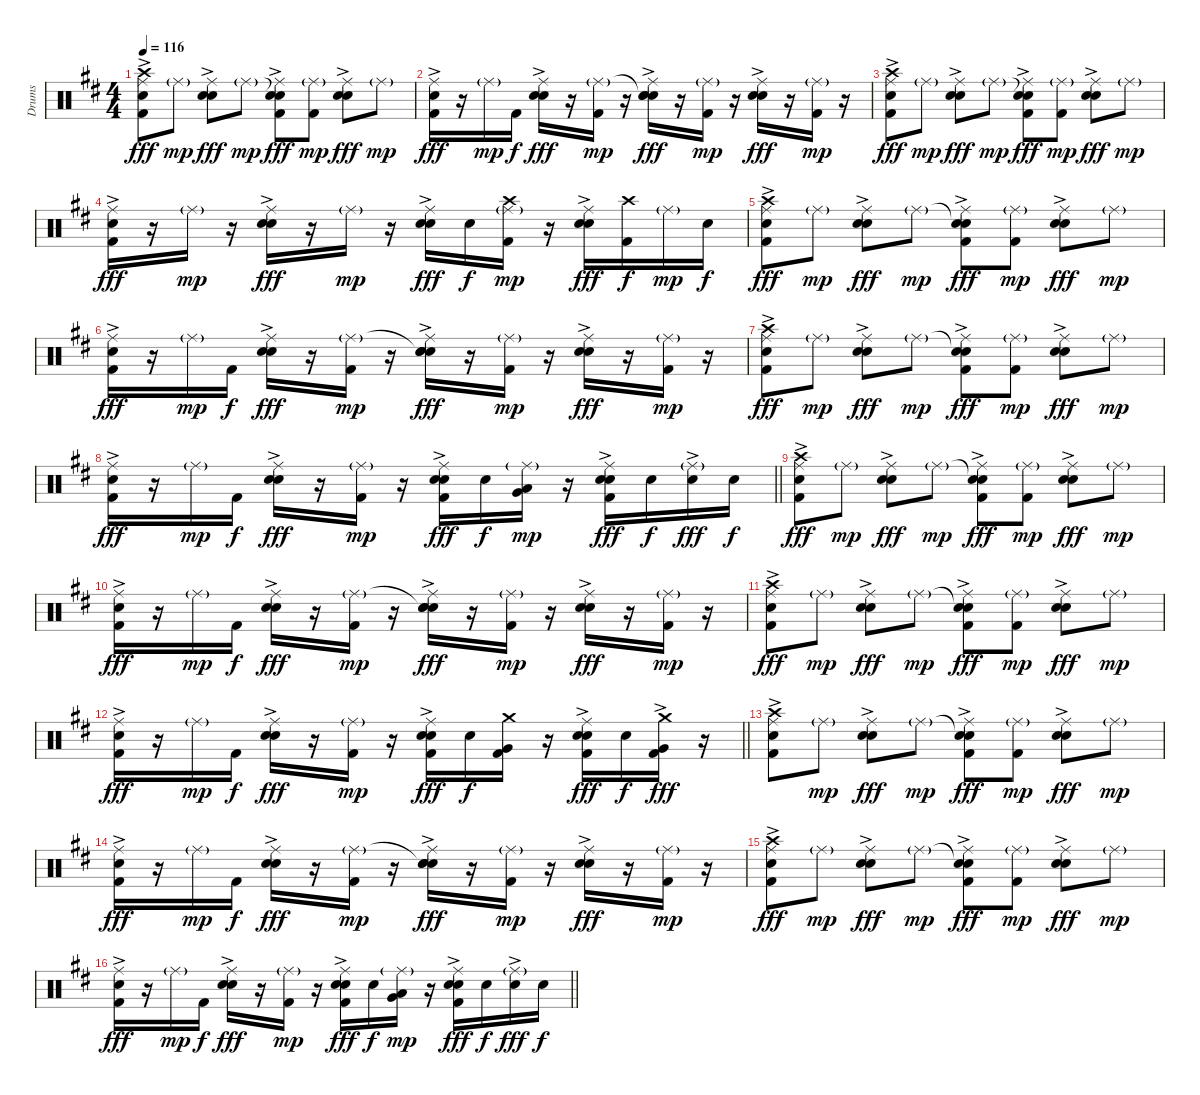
\track ("Drums" "Drums") {instrument percussion}
\staff {score}
\articulation defaults
\ts (4 4)
\tempo 116
\clef neutral
\ks d
("Crash high (hit)" "Ride (middle)" "Hand Clap (hit)"{ac} "Kick (hit) 2").8{dy fff} "Ride (middle)"{g}.8{dy mp} ("Ride (middle)" "Hand Clap (hit)"{ac} "Snare (hit) 2").8{dy fff} "Ride (middle)"{g}.8{dy mp} ("Snare (hit)"{t} "Ride (middle)" "Hand Clap (hit)"{ac} "Kick (hit) 2").8{dy fff} ("Ride (middle)"{g} "Kick (hit) 2").8{dy mp} ("Ride (middle)" "Hand Clap (hit)"{ac} "Snare (hit) 2").8{dy fff} "Ride (middle)"{g}.8{dy mp} |
("Ride (middle)" "Hand Clap (hit)"{ac} "Kick (hit) 2").16{dy fff} r.16 "Ride (middle)"{g}.16{dy mp} "Kick (hit) 2".16{dy f} ("Ride (middle)" "Hand Clap (hit)"{ac} "Snare (hit) 2").16{dy fff} r.16 ("Ride (middle)"{g} "Kick (hit) 2").16{dy mp} r.16 ("Snare (hit)"{t} "Ride (middle)" "Hand Clap (hit)"{ac} "Snare (hit) 2").16{dy fff} r.16 ("Ride (middle)"{g} "Kick (hit) 2").16{dy mp} r.16 ("Ride (middle)" "Hand Clap (hit)"{ac} "Snare (hit) 2").16{dy fff} r.16 ("Ride (middle)"{g} "Kick (hit) 2").16{dy mp} r.16 |
("Crash high (hit)" "Ride (middle)" "Hand Clap (hit)"{ac} "Kick (hit) 2").8{dy fff} "Ride (middle)"{g}.8{dy mp} ("Ride (middle)" "Hand Clap (hit)"{ac} "Snare (hit) 2").8{dy fff} "Ride (middle)"{g}.8{dy mp} ("Snare (hit)"{t} "Ride (middle)" "Hand Clap (hit)"{ac} "Kick (hit) 2").8{dy fff} ("Ride (middle)"{g} "Kick (hit) 2").8{dy mp} ("Ride (middle)" "Hand Clap (hit)"{ac} "Snare (hit) 2").8{dy fff} "Ride (middle)"{g}.8{dy mp} |
("Ride (middle)" "Hand Clap (hit)"{ac} "Kick (hit) 2").16{dy fff} r.16 "Ride (middle)"{g}.16{dy mp} r.16 ("Ride (middle)" "Hand Clap (hit)"{ac} "Snare (hit) 2").16{dy fff} r.16 "Ride (middle)"{g}.16{dy mp} r.16 ("Ride (middle)" "Hand Clap (hit)"{ac} "Snare (hit) 2").16{dy fff} "Snare (hit) 2".16{dy f} ("Crash high (hit)" "Ride (middle)"{g} "Kick (hit) 2").16{dy mp} r.16 ("Ride (middle)" "Hand Clap (hit)"{ac} "Snare (hit) 2").16{dy fff} ("Crash high (hit)" "Kick (hit) 2").16{dy f} "Ride (middle)"{g}.16{dy mp} "Snare (hit) 2".16{dy f} |
("Crash high (hit)" "Ride (middle)" "Hand Clap (hit)"{ac} "Kick (hit) 2").8{dy fff} "Ride (middle)"{g}.8{dy mp} ("Ride (middle)" "Hand Clap (hit)"{ac} "Snare (hit) 2").8{dy fff} "Ride (middle)"{g}.8{dy mp} ("Snare (hit)"{t} "Ride (middle)" "Hand Clap (hit)"{ac} "Kick (hit) 2").8{dy fff} ("Ride (middle)"{g} "Kick (hit) 2").8{dy mp} ("Ride (middle)" "Hand Clap (hit)"{ac} "Snare (hit) 2").8{dy fff} "Ride (middle)"{g}.8{dy mp} |
("Ride (middle)" "Hand Clap (hit)"{ac} "Kick (hit) 2").16{dy fff} r.16 "Ride (middle)"{g}.16{dy mp} "Kick (hit) 2".16{dy f} ("Ride (middle)" "Hand Clap (hit)"{ac} "Snare (hit) 2").16{dy fff} r.16 ("Ride (middle)"{g} "Kick (hit) 2").16{dy mp} r.16 ("Snare (hit)"{t} "Ride (middle)" "Hand Clap (hit)"{ac} "Snare (hit) 2").16{dy fff} r.16 ("Ride (middle)"{g} "Kick (hit) 2").16{dy mp} r.16 ("Ride (middle)" "Hand Clap (hit)"{ac} "Snare (hit) 2").16{dy fff} r.16 ("Ride (middle)"{g} "Kick (hit) 2").16{dy mp} r.16 |
("Crash high (hit)" "Ride (middle)" "Hand Clap (hit)"{ac} "Kick (hit) 2").8{dy fff} "Ride (middle)"{g}.8{dy mp} ("Ride (middle)" "Hand Clap (hit)"{ac} "Snare (hit) 2").8{dy fff} "Ride (middle)"{g}.8{dy mp} ("Snare (hit)"{t} "Ride (middle)" "Hand Clap (hit)"{ac} "Kick (hit) 2").8{dy fff} ("Ride (middle)"{g} "Kick (hit) 2").8{dy mp} ("Ride (middle)" "Hand Clap (hit)"{ac} "Snare (hit) 2").8{dy fff} "Ride (middle)"{g}.8{dy mp} |
\barLineRight lightlight
("Ride (middle)" "Hand Clap (hit)"{ac} "Kick (hit) 2").16{dy fff} r.16 "Ride (middle)"{g}.16{dy mp} "Kick (hit) 2".16{dy f} ("Ride (middle)" "Hand Clap (hit)"{ac} "Snare (hit) 2").16{dy fff} r.16 ("Ride (middle)"{g} "Kick (hit) 2").16{dy mp} r.16 ("Ride (middle)" "Hand Clap (hit)"{ac} "Snare (hit) 2" "Kick (hit) 2").16{dy fff} "Snare (hit) 2".16{dy f} ("Ride (middle)"{g} "Low Tom (hit)" "Very Low Tom (hit)").16{dy mp} r.16 ("Ride (middle)" "Hand Clap (hit)"{ac} "Snare (hit) 2"{ac} "Kick (hit) 2").16{dy fff} "Snare (hit) 2".16{dy f} ("Ride (middle)"{g} "Snare (hit) 2"{ac}).16{dy fff} "Snare (hit) 2".16{dy f} |
("Crash high (hit)" "Ride (middle)" "Hand Clap (hit)"{ac} "Kick (hit) 2").8{dy fff} "Ride (middle)"{g}.8{dy mp} ("Ride (middle)" "Hand Clap (hit)"{ac} "Snare (hit) 2").8{dy fff} "Ride (middle)"{g}.8{dy mp} ("Snare (hit)"{t} "Ride (middle)" "Hand Clap (hit)"{ac} "Kick (hit) 2").8{dy fff} ("Ride (middle)"{g} "Kick (hit) 2").8{dy mp} ("Ride (middle)" "Hand Clap (hit)"{ac} "Snare (hit) 2").8{dy fff} "Ride (middle)"{g}.8{dy mp} |
("Ride (middle)" "Hand Clap (hit)"{ac} "Kick (hit) 2").16{dy fff} r.16 "Ride (middle)"{g}.16{dy mp} "Kick (hit) 2".16{dy f} ("Ride (middle)" "Hand Clap (hit)"{ac} "Snare (hit) 2").16{dy fff} r.16 ("Ride (middle)"{g} "Kick (hit) 2").16{dy mp} r.16 ("Snare (hit)"{t} "Ride (middle)" "Hand Clap (hit)"{ac} "Snare (hit) 2").16{dy fff} r.16 ("Ride (middle)"{g} "Kick (hit) 2").16{dy mp} r.16 ("Ride (middle)" "Hand Clap (hit)"{ac} "Snare (hit) 2").16{dy fff} r.16 ("Ride (middle)"{g} "Kick (hit) 2").16{dy mp} r.16 |
("Crash high (hit)" "Ride (middle)" "Hand Clap (hit)"{ac} "Kick (hit) 2").8{dy fff} "Ride (middle)"{g}.8{dy mp} ("Ride (middle)" "Hand Clap (hit)"{ac} "Snare (hit) 2").8{dy fff} "Ride (middle)"{g}.8{dy mp} ("Snare (hit)"{t} "Ride (middle)" "Hand Clap (hit)"{ac} "Kick (hit) 2").8{dy fff} ("Ride (middle)"{g} "Kick (hit) 2").8{dy mp} ("Ride (middle)" "Hand Clap (hit)"{ac} "Snare (hit) 2").8{dy fff} "Ride (middle)"{g}.8{dy mp} |
\barLineRight lightlight
("Ride (middle)" "Hand Clap (hit)"{ac} "Kick (hit) 2").16{dy fff} r.16 "Ride (middle)"{g}.16{dy mp} "Kick (hit) 2".16{dy f} ("Ride (middle)" "Hand Clap (hit)"{ac} "Snare (hit) 2").16{dy fff} r.16 ("Ride (middle)"{g} "Kick (hit) 2").16{dy mp} r.16 ("Ride (middle)" "Hand Clap (hit)"{ac} "Snare (hit) 2" "Kick (hit) 2").16{dy fff} "Snare (hit) 2".16{dy f} ("Crash medium (hit)" "Very Low Tom (hit)" "Kick (hit) 2").16 r.16 ("Ride (middle)" "Hand Clap (hit)"{ac} "Snare (hit) 2"{ac} "Kick (hit) 2").16{dy fff} "Snare (hit) 2".16{dy f} ("Crash medium (hit)" "Very Low Tom (hit)"{ac} "Kick (hit) 2").16{dy fff} r.16 |
("Crash high (hit)" "Ride (middle)" "Hand Clap (hit)"{ac} "Kick (hit) 2").8 "Ride (middle)"{g}.8{dy mp} ("Ride (middle)" "Hand Clap (hit)"{ac} "Snare (hit) 2").8{dy fff} "Ride (middle)"{g}.8{dy mp} ("Snare (hit)"{t} "Ride (middle)" "Hand Clap (hit)"{ac} "Kick (hit) 2").8{dy fff} ("Ride (middle)"{g} "Kick (hit) 2").8{dy mp} ("Ride (middle)" "Hand Clap (hit)"{ac} "Snare (hit) 2").8{dy fff} "Ride (middle)"{g}.8{dy mp} |
("Ride (middle)" "Hand Clap (hit)"{ac} "Kick (hit) 2").16{dy fff} r.16 "Ride (middle)"{g}.16{dy mp} "Kick (hit) 2".16{dy f} ("Ride (middle)" "Hand Clap (hit)"{ac} "Snare (hit) 2").16{dy fff} r.16 ("Ride (middle)"{g} "Kick (hit) 2").16{dy mp} r.16 ("Snare (hit)"{t} "Ride (middle)" "Hand Clap (hit)"{ac} "Snare (hit) 2").16{dy fff} r.16 ("Ride (middle)"{g} "Kick (hit) 2").16{dy mp} r.16 ("Ride (middle)" "Hand Clap (hit)"{ac} "Snare (hit) 2").16{dy fff} r.16 ("Ride (middle)"{g} "Kick (hit) 2").16{dy mp} r.16 |
("Crash high (hit)" "Ride (middle)" "Hand Clap (hit)"{ac} "Kick (hit) 2").8{dy fff} "Ride (middle)"{g}.8{dy mp} ("Ride (middle)" "Hand Clap (hit)"{ac} "Snare (hit) 2").8{dy fff} "Ride (middle)"{g}.8{dy mp} ("Snare (hit)"{t} "Ride (middle)" "Hand Clap (hit)"{ac} "Kick (hit) 2").8{dy fff} ("Ride (middle)"{g} "Kick (hit) 2").8{dy mp} ("Ride (middle)" "Hand Clap (hit)"{ac} "Snare (hit) 2").8{dy fff} "Ride (middle)"{g}.8{dy mp} |
\barLineRight lightlight
("Ride (middle)" "Hand Clap (hit)"{ac} "Kick (hit) 2").16{dy fff} r.16 "Ride (middle)"{g}.16{dy mp} "Kick (hit) 2".16{dy f} ("Ride (middle)" "Hand Clap (hit)"{ac} "Snare (hit) 2").16{dy fff} r.16 ("Ride (middle)"{g} "Kick (hit) 2").16{dy mp} r.16 ("Ride (middle)" "Hand Clap (hit)"{ac} "Snare (hit) 2" "Kick (hit) 2").16{dy fff} "Snare (hit) 2".16{dy f} ("Ride (middle)"{g} "Low Tom (hit)" "Very Low Tom (hit)").16{dy mp} r.16 ("Ride (middle)" "Hand Clap (hit)"{ac} "Snare (hit) 2"{ac} "Kick (hit) 2").16{dy fff} "Snare (hit) 2".16{dy f} ("Ride (middle)"{g} "Snare (hit) 2"{ac}).16{dy fff} "Snare (hit) 2".16{dy f}
